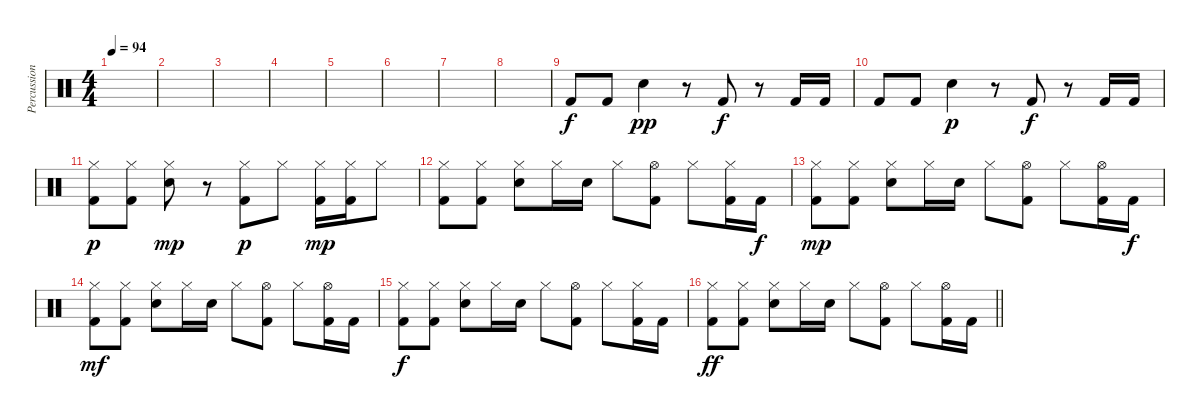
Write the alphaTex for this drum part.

\track ("Percussion" "Percussion") {instrument percussion}
\staff {score}
\articulation defaults
\ts (4 4)
\tempo 94
\clef neutral
\ks c
|
|
|
|
|
|
|
|
"Kick (hit) 2".8 "Kick (hit) 2".8 "Snare (hit) 2".4{dy pp} r.8 "Kick (hit) 2".8{dy f} r.8 "Kick (hit) 2".16 "Kick (hit) 2".16 |
"Kick (hit) 2".8 "Kick (hit) 2".8 "Snare (hit) 2".4{dy p} r.8 "Kick (hit) 2".8{dy f} r.8 "Kick (hit) 2".16 "Kick (hit) 2".16 |
("Hi-Hat (closed)" "Kick (hit) 2").8{dy p} ("Hi-Hat (closed)" "Kick (hit) 2").8 ("Hi-Hat (closed)" "Snare (hit) 2").8{dy mp} r.8 ("Hi-Hat (closed)" "Kick (hit) 2").8{dy p} "Hi-Hat (closed)".8 ("Hi-Hat (closed)" "Kick (hit) 2").16{dy mp} ("Hi-Hat (closed)" "Kick (hit) 2").16 "Hi-Hat (closed)".8 |
("Hi-Hat (closed)" "Kick (hit) 2").8 ("Hi-Hat (closed)" "Kick (hit) 2").8 ("Hi-Hat (closed)" "Snare (hit) 2").8 "Hi-Hat (closed)".16 "Snare (hit) 2".16 "Hi-Hat (closed)".8 ("Hi-Hat (open)" "Kick (hit) 2").8 "Hi-Hat (closed)".8 ("Hi-Hat (closed)" "Kick (hit) 2").16 "Kick (hit) 2".16{dy f} |
("Hi-Hat (closed)" "Kick (hit) 2").8{dy mp} ("Hi-Hat (closed)" "Kick (hit) 2").8 ("Hi-Hat (closed)" "Snare (hit) 2").8 "Hi-Hat (closed)".16 "Snare (hit) 2".16 "Hi-Hat (closed)".8 ("Hi-Hat (open)" "Kick (hit) 2").8 "Hi-Hat (closed)".8 ("Hi-Hat (open)" "Kick (hit) 2").16 "Kick (hit) 2".16{dy f} |
("Hi-Hat (closed)" "Kick (hit) 2").8{dy mf} ("Hi-Hat (closed)" "Kick (hit) 2").8 ("Hi-Hat (closed)" "Snare (hit) 2").8 "Hi-Hat (closed)".16 "Snare (hit) 2".16 "Hi-Hat (closed)".8 ("Hi-Hat (open)" "Kick (hit) 2").8 "Hi-Hat (closed)".8 ("Hi-Hat (open)" "Kick (hit) 2").16 "Kick (hit) 2".16 |
("Hi-Hat (closed)" "Kick (hit) 2").8{dy f} ("Hi-Hat (closed)" "Kick (hit) 2").8 ("Hi-Hat (closed)" "Snare (hit) 2").8 "Hi-Hat (closed)".16 "Snare (hit) 2".16 "Hi-Hat (closed)".8 ("Hi-Hat (open)" "Kick (hit) 2").8 "Hi-Hat (closed)".8 ("Hi-Hat (closed)" "Kick (hit) 2").16 "Kick (hit) 2".16 |
\barLineRight lightlight
("Hi-Hat (closed)" "Kick (hit) 2").8{dy ff} ("Hi-Hat (closed)" "Kick (hit) 2").8 ("Hi-Hat (closed)" "Snare (hit) 2").8 "Hi-Hat (closed)".16 "Snare (hit) 2".16 "Hi-Hat (closed)".8 ("Hi-Hat (open)" "Kick (hit) 2").8 "Hi-Hat (closed)".8 ("Hi-Hat (open)" "Kick (hit) 2").16 "Kick (hit) 2".16
